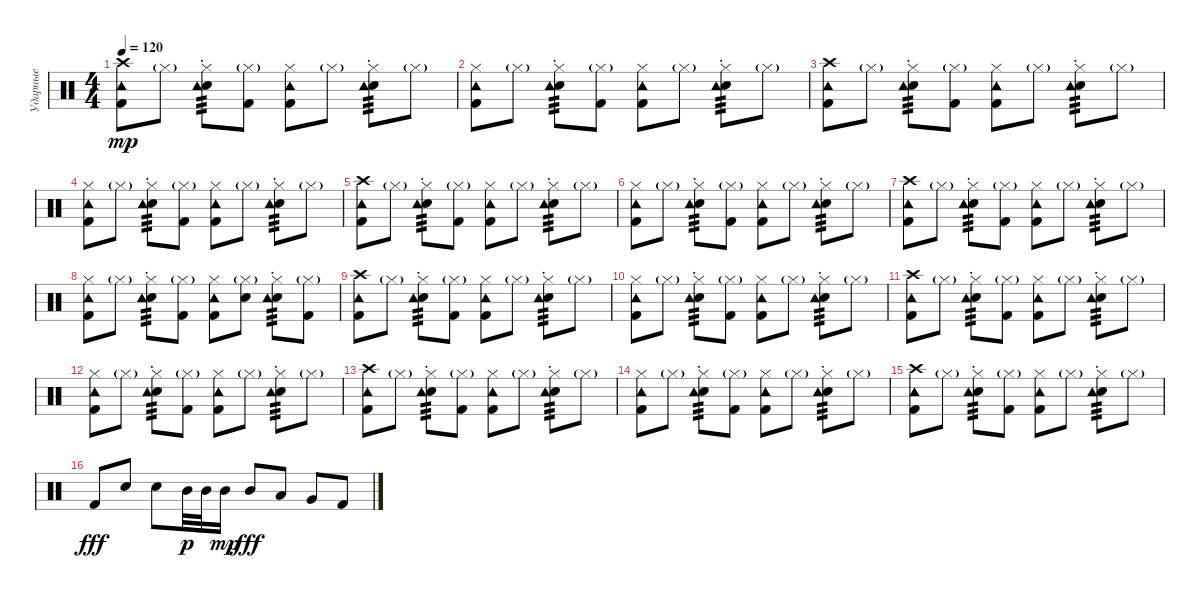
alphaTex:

\track ("Ударные" "Ударные") {instrument percussion}
\staff {score}
\articulation defaults
\ts (4 4)
\tempo 120
\clef neutral
\ks c
("Kick (hit) 2" "Crash high (hit)" "Tambourine (hit)").8{dy mp} "Hi-Hat (closed)"{g}.8 ("Electric Snare (hit)" "Hi-Hat (closed)" "Tambourine (hit)"{st}).8{tp 3} ("Kick (hit) 2" "Hi-Hat (closed)"{g}).8 ("Kick (hit) 2" "Hi-Hat (closed)" "Tambourine (hit)").8 "Hi-Hat (closed)"{g}.8 ("Electric Snare (hit)" "Hi-Hat (closed)" "Tambourine (hit)"{st}).8{tp 3} "Hi-Hat (closed)"{g}.8 |
("Kick (hit) 2" "Hi-Hat (closed)" "Tambourine (hit)").8 "Hi-Hat (closed)"{g}.8 ("Electric Snare (hit)" "Hi-Hat (closed)" "Tambourine (hit)"{st}).8{tp 3} ("Kick (hit) 2" "Hi-Hat (closed)"{g}).8 ("Kick (hit) 2" "Hi-Hat (closed)" "Tambourine (hit)").8 "Hi-Hat (closed)"{g}.8 ("Electric Snare (hit)" "Hi-Hat (closed)" "Tambourine (hit)"{st}).8{tp 3} "Hi-Hat (closed)"{g}.8 |
("Kick (hit) 2" "Crash high (hit)" "Tambourine (hit)").8 "Hi-Hat (closed)"{g}.8 ("Electric Snare (hit)" "Hi-Hat (closed)" "Tambourine (hit)"{st}).8{tp 3} ("Kick (hit) 2" "Hi-Hat (closed)"{g}).8 ("Kick (hit) 2" "Hi-Hat (closed)" "Tambourine (hit)").8 "Hi-Hat (closed)"{g}.8 ("Electric Snare (hit)" "Hi-Hat (closed)" "Tambourine (hit)"{st}).8{tp 3} "Hi-Hat (closed)"{g}.8 |
("Kick (hit) 2" "Hi-Hat (closed)" "Tambourine (hit)").8 "Hi-Hat (closed)"{g}.8 ("Electric Snare (hit)" "Hi-Hat (closed)" "Tambourine (hit)"{st}).8{tp 3} ("Kick (hit) 2" "Hi-Hat (closed)"{g}).8 ("Kick (hit) 2" "Hi-Hat (closed)" "Tambourine (hit)").8 "Hi-Hat (closed)"{g}.8 ("Electric Snare (hit)" "Hi-Hat (closed)" "Tambourine (hit)"{st}).8{tp 3} "Hi-Hat (closed)"{g}.8 |
("Kick (hit) 2" "Crash high (hit)" "Tambourine (hit)").8 "Hi-Hat (closed)"{g}.8 ("Electric Snare (hit)" "Hi-Hat (closed)" "Tambourine (hit)"{st}).8{tp 3} ("Kick (hit) 2" "Hi-Hat (closed)"{g}).8 ("Kick (hit) 2" "Hi-Hat (closed)" "Tambourine (hit)").8 "Hi-Hat (closed)"{g}.8 ("Electric Snare (hit)" "Hi-Hat (closed)" "Tambourine (hit)"{st}).8{tp 3} "Hi-Hat (closed)"{g}.8 |
("Kick (hit) 2" "Hi-Hat (closed)" "Tambourine (hit)").8 "Hi-Hat (closed)"{g}.8 ("Electric Snare (hit)" "Hi-Hat (closed)" "Tambourine (hit)"{st}).8{tp 3} ("Kick (hit) 2" "Hi-Hat (closed)"{g}).8 ("Kick (hit) 2" "Hi-Hat (closed)" "Tambourine (hit)").8 "Hi-Hat (closed)"{g}.8 ("Electric Snare (hit)" "Hi-Hat (closed)" "Tambourine (hit)"{st}).8{tp 3} "Hi-Hat (closed)"{g}.8 |
("Kick (hit) 2" "Crash high (hit)" "Tambourine (hit)").8 "Hi-Hat (closed)"{g}.8 ("Electric Snare (hit)" "Hi-Hat (closed)" "Tambourine (hit)"{st}).8{tp 3} ("Kick (hit) 2" "Hi-Hat (closed)"{g}).8 ("Kick (hit) 2" "Hi-Hat (closed)" "Tambourine (hit)").8 "Hi-Hat (closed)"{g}.8 ("Electric Snare (hit)" "Hi-Hat (closed)" "Tambourine (hit)"{st}).8{tp 3} "Hi-Hat (closed)"{g}.8 |
("Kick (hit) 2" "Hi-Hat (closed)" "Tambourine (hit)").8 "Hi-Hat (closed)"{g}.8 ("Electric Snare (hit)" "Hi-Hat (closed)" "Tambourine (hit)"{st}).8{tp 3} ("Kick (hit) 2" "Hi-Hat (closed)"{g}).8 ("Kick (hit) 2" "Hi-Hat (closed)" "Tambourine (hit)").8 ("Electric Snare (hit)" "Hi-Hat (closed)"{g}).8 ("Electric Snare (hit)" "Hi-Hat (closed)" "Tambourine (hit)"{st}).8{tp 3} ("Kick (hit) 2" "Hi-Hat (closed)"{g}).8 |
("Kick (hit) 2" "Crash high (hit)" "Tambourine (hit)").8 "Hi-Hat (closed)"{g}.8 ("Electric Snare (hit)" "Hi-Hat (closed)" "Tambourine (hit)"{st}).8{tp 3} ("Kick (hit) 2" "Hi-Hat (closed)"{g}).8 ("Kick (hit) 2" "Hi-Hat (closed)" "Tambourine (hit)").8 "Hi-Hat (closed)"{g}.8 ("Electric Snare (hit)" "Hi-Hat (closed)" "Tambourine (hit)"{st}).8{tp 3} "Hi-Hat (closed)"{g}.8 |
("Kick (hit) 2" "Hi-Hat (closed)" "Tambourine (hit)").8 "Hi-Hat (closed)"{g}.8 ("Electric Snare (hit)" "Hi-Hat (closed)" "Tambourine (hit)"{st}).8{tp 3} ("Kick (hit) 2" "Hi-Hat (closed)"{g}).8 ("Kick (hit) 2" "Hi-Hat (closed)" "Tambourine (hit)").8 "Hi-Hat (closed)"{g}.8 ("Electric Snare (hit)" "Hi-Hat (closed)" "Tambourine (hit)"{st}).8{tp 3} "Hi-Hat (closed)"{g}.8 |
("Kick (hit) 2" "Crash high (hit)" "Tambourine (hit)").8 "Hi-Hat (closed)"{g}.8 ("Electric Snare (hit)" "Hi-Hat (closed)" "Tambourine (hit)"{st}).8{tp 3} ("Kick (hit) 2" "Hi-Hat (closed)"{g}).8 ("Kick (hit) 2" "Hi-Hat (closed)" "Tambourine (hit)").8 "Hi-Hat (closed)"{g}.8 ("Electric Snare (hit)" "Hi-Hat (closed)" "Tambourine (hit)"{st}).8{tp 3} "Hi-Hat (closed)"{g}.8 |
("Kick (hit) 2" "Hi-Hat (closed)" "Tambourine (hit)").8 "Hi-Hat (closed)"{g}.8 ("Electric Snare (hit)" "Hi-Hat (closed)" "Tambourine (hit)"{st}).8{tp 3} ("Kick (hit) 2" "Hi-Hat (closed)"{g}).8 ("Kick (hit) 2" "Hi-Hat (closed)" "Tambourine (hit)").8 "Hi-Hat (closed)"{g}.8 ("Electric Snare (hit)" "Hi-Hat (closed)" "Tambourine (hit)"{st}).8{tp 3} "Hi-Hat (closed)"{g}.8 |
("Kick (hit) 2" "Crash high (hit)" "Tambourine (hit)").8 "Hi-Hat (closed)"{g}.8 ("Electric Snare (hit)" "Hi-Hat (closed)" "Tambourine (hit)"{st}).8{tp 3} ("Kick (hit) 2" "Hi-Hat (closed)"{g}).8 ("Kick (hit) 2" "Hi-Hat (closed)" "Tambourine (hit)").8 "Hi-Hat (closed)"{g}.8 ("Electric Snare (hit)" "Hi-Hat (closed)" "Tambourine (hit)"{st}).8{tp 3} "Hi-Hat (closed)"{g}.8 |
("Kick (hit) 2" "Hi-Hat (closed)" "Tambourine (hit)").8 "Hi-Hat (closed)"{g}.8 ("Electric Snare (hit)" "Hi-Hat (closed)" "Tambourine (hit)"{st}).8{tp 3} ("Kick (hit) 2" "Hi-Hat (closed)"{g}).8 ("Kick (hit) 2" "Hi-Hat (closed)" "Tambourine (hit)").8 "Hi-Hat (closed)"{g}.8 ("Electric Snare (hit)" "Hi-Hat (closed)" "Tambourine (hit)"{st}).8{tp 3} "Hi-Hat (closed)"{g}.8 |
("Kick (hit) 2" "Crash high (hit)" "Tambourine (hit)").8 "Hi-Hat (closed)"{g}.8 ("Electric Snare (hit)" "Hi-Hat (closed)" "Tambourine (hit)"{st}).8{tp 3} ("Kick (hit) 2" "Hi-Hat (closed)"{g}).8 ("Kick (hit) 2" "Hi-Hat (closed)" "Tambourine (hit)").8 "Hi-Hat (closed)"{g}.8 ("Electric Snare (hit)" "Hi-Hat (closed)" "Tambourine (hit)"{st}).8{tp 3} "Hi-Hat (closed)"{g}.8 |
"Kick (hit) 2".8{dy fff} "Electric Snare (hit)".8 "Electric Snare (hit)".8 "Mid Tom (hit)".32{dy p} "Mid Tom (hit)".32 "Mid Tom (hit)".16{dy mp} "Mid Tom (hit)".8{dy fff} "Low Tom (hit)".8 "Very Low Tom (hit)".8 "Kick (hit) 2".8
